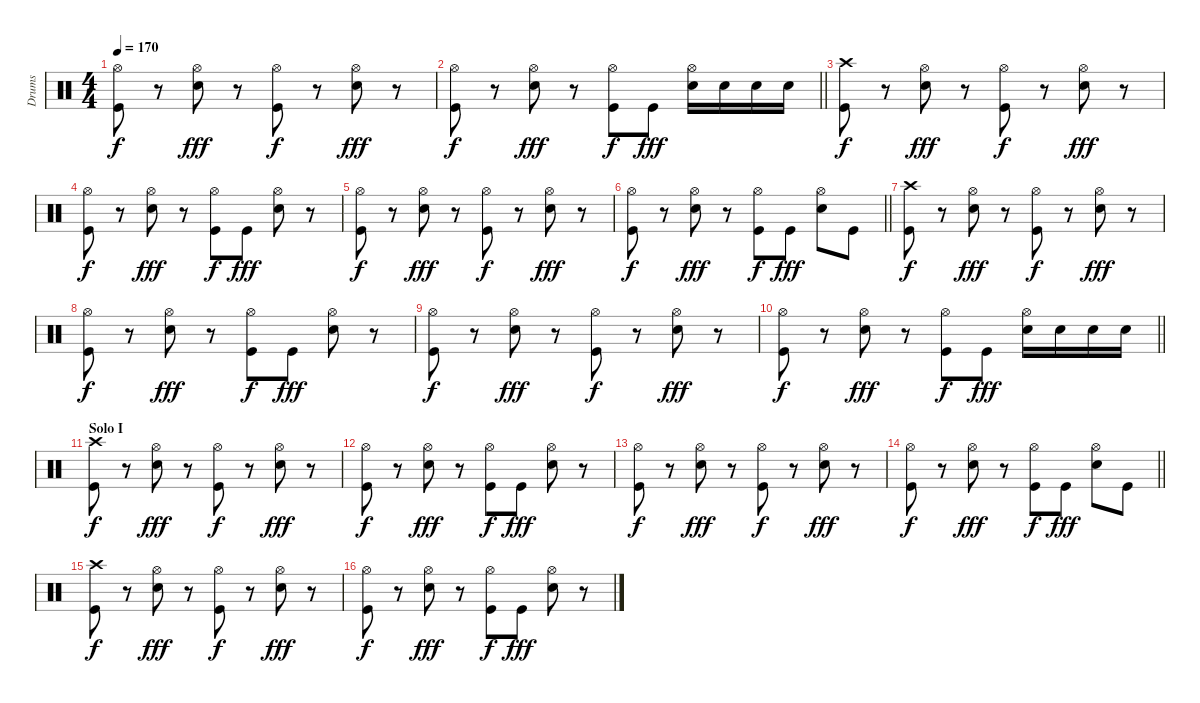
\track ("Drums" "Drums") {instrument percussion}
\staff {score}
\articulation defaults
\ts (4 4)
\tempo 170
\clef neutral
\ks c
("Hi-Hat (open)" "Kick (hit)").8{dy f} r.8 ("Hi-Hat (open)" "Snare (hit) 2").8{dy fff} r.8 ("Hi-Hat (open)" "Kick (hit)").8{dy f} r.8 ("Hi-Hat (open)" "Snare (hit) 2").8{dy fff} r.8 |
\barLineRight lightlight
("Hi-Hat (open)" "Kick (hit)").8{dy f} r.8 ("Hi-Hat (open)" "Snare (hit) 2").8{dy fff} r.8 ("Hi-Hat (open)" "Kick (hit)").8{dy f} "Kick (hit)".8{dy fff} ("Hi-Hat (open)" "Snare (hit) 2").16 "Snare (hit) 2".16 "Snare (hit) 2".16 "Snare (hit) 2".16 |
("Crash high (hit)" "Kick (hit)").8{dy f} r.8 ("Hi-Hat (open)" "Snare (hit) 2").8{dy fff} r.8 ("Hi-Hat (open)" "Kick (hit)").8{dy f} r.8 ("Hi-Hat (open)" "Snare (hit) 2").8{dy fff} r.8 |
("Hi-Hat (open)" "Kick (hit)").8{dy f} r.8 ("Hi-Hat (open)" "Snare (hit) 2").8{dy fff} r.8 ("Hi-Hat (open)" "Kick (hit)").8{dy f} "Kick (hit)".8{dy fff} ("Hi-Hat (open)" "Snare (hit) 2").8 r.8 |
("Hi-Hat (open)" "Kick (hit)").8{dy f} r.8 ("Hi-Hat (open)" "Snare (hit) 2").8{dy fff} r.8 ("Hi-Hat (open)" "Kick (hit)").8{dy f} r.8 ("Hi-Hat (open)" "Snare (hit) 2").8{dy fff} r.8 |
\barLineRight lightlight
("Hi-Hat (open)" "Kick (hit)").8{dy f} r.8 ("Hi-Hat (open)" "Snare (hit) 2").8{dy fff} r.8 ("Hi-Hat (open)" "Kick (hit)").8{dy f} "Kick (hit)".8{dy fff} ("Hi-Hat (open)" "Snare (hit) 2").8 "Kick (hit)".8 |
("Crash high (hit)" "Kick (hit)").8{dy f} r.8 ("Hi-Hat (open)" "Snare (hit) 2").8{dy fff} r.8 ("Hi-Hat (open)" "Kick (hit)").8{dy f} r.8 ("Hi-Hat (open)" "Snare (hit) 2").8{dy fff} r.8 |
("Hi-Hat (open)" "Kick (hit)").8{dy f} r.8 ("Hi-Hat (open)" "Snare (hit) 2").8{dy fff} r.8 ("Hi-Hat (open)" "Kick (hit)").8{dy f} "Kick (hit)".8{dy fff} ("Hi-Hat (open)" "Snare (hit) 2").8 r.8 |
("Hi-Hat (open)" "Kick (hit)").8{dy f} r.8 ("Hi-Hat (open)" "Snare (hit) 2").8{dy fff} r.8 ("Hi-Hat (open)" "Kick (hit)").8{dy f} r.8 ("Hi-Hat (open)" "Snare (hit) 2").8{dy fff} r.8 |
\barLineRight lightlight
("Hi-Hat (open)" "Kick (hit)").8{dy f} r.8 ("Hi-Hat (open)" "Snare (hit) 2").8{dy fff} r.8 ("Hi-Hat (open)" "Kick (hit)").8{dy f} "Kick (hit)".8{dy fff} ("Hi-Hat (open)" "Snare (hit) 2").16 "Snare (hit) 2".16 "Snare (hit) 2".16 "Snare (hit) 2".16 |
\section ("" "Solo I")
("Crash high (hit)" "Kick (hit)").8{dy f} r.8 ("Hi-Hat (open)" "Snare (hit) 2").8{dy fff} r.8 ("Hi-Hat (open)" "Kick (hit)").8{dy f} r.8 ("Hi-Hat (open)" "Snare (hit) 2").8{dy fff} r.8 |
("Hi-Hat (open)" "Kick (hit)").8{dy f} r.8 ("Hi-Hat (open)" "Snare (hit) 2").8{dy fff} r.8 ("Hi-Hat (open)" "Kick (hit)").8{dy f} "Kick (hit)".8{dy fff} ("Hi-Hat (open)" "Snare (hit) 2").8 r.8 |
("Hi-Hat (open)" "Kick (hit)").8{dy f} r.8 ("Hi-Hat (open)" "Snare (hit) 2").8{dy fff} r.8 ("Hi-Hat (open)" "Kick (hit)").8{dy f} r.8 ("Hi-Hat (open)" "Snare (hit) 2").8{dy fff} r.8 |
\barLineRight lightlight
("Hi-Hat (open)" "Kick (hit)").8{dy f} r.8 ("Hi-Hat (open)" "Snare (hit) 2").8{dy fff} r.8 ("Hi-Hat (open)" "Kick (hit)").8{dy f} "Kick (hit)".8{dy fff} ("Hi-Hat (open)" "Snare (hit) 2").8 "Kick (hit)".8 |
("Crash high (hit)" "Kick (hit)").8{dy f} r.8 ("Hi-Hat (open)" "Snare (hit) 2").8{dy fff} r.8 ("Hi-Hat (open)" "Kick (hit)").8{dy f} r.8 ("Hi-Hat (open)" "Snare (hit) 2").8{dy fff} r.8 |
("Hi-Hat (open)" "Kick (hit)").8{dy f} r.8 ("Hi-Hat (open)" "Snare (hit) 2").8{dy fff} r.8 ("Hi-Hat (open)" "Kick (hit)").8{dy f} "Kick (hit)".8{dy fff} ("Hi-Hat (open)" "Snare (hit) 2").8 r.8
